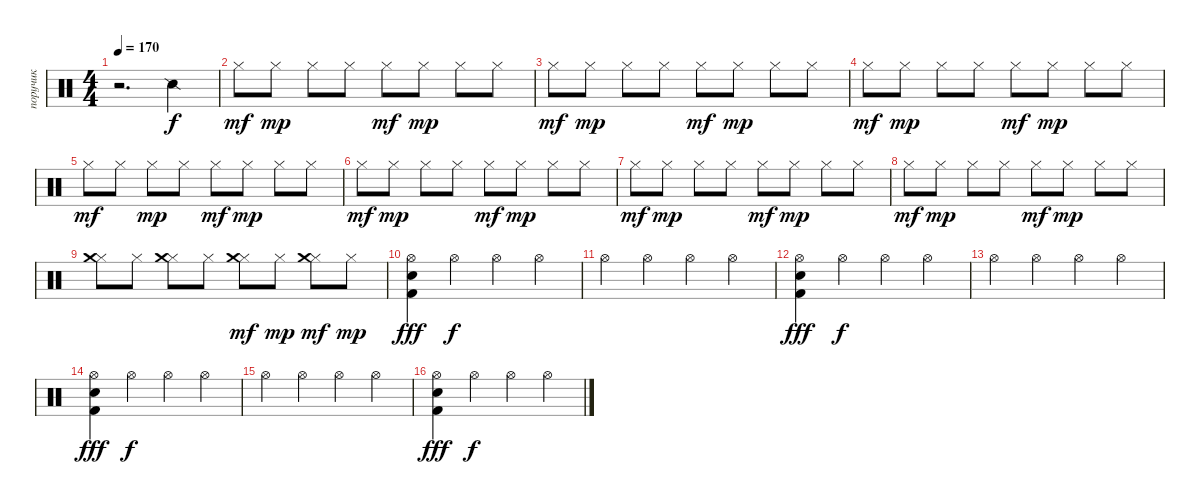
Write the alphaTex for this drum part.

\track ("поручик" "поручик") {instrument percussion}
\staff {score}
\articulation defaults
\ts (4 4)
\tempo 170
\clef neutral
\ks c
r.2{d dy f} "Snare (side stick) 2".4 |
"Hi-Hat (closed)".8{dy mf} "Hi-Hat (closed)".8{dy mp} "Hi-Hat (closed)".8 "Hi-Hat (closed)".8 "Hi-Hat (closed)".8{dy mf} "Hi-Hat (closed)".8{dy mp} "Hi-Hat (closed)".8 "Hi-Hat (closed)".8 |
"Hi-Hat (closed)".8{dy mf} "Hi-Hat (closed)".8{dy mp} "Hi-Hat (closed)".8 "Hi-Hat (closed)".8 "Hi-Hat (closed)".8{dy mf} "Hi-Hat (closed)".8{dy mp} "Hi-Hat (closed)".8 "Hi-Hat (closed)".8 |
"Hi-Hat (closed)".8{dy mf} "Hi-Hat (closed)".8{dy mp} "Hi-Hat (closed)".8 "Hi-Hat (closed)".8 "Hi-Hat (closed)".8{dy mf} "Hi-Hat (closed)".8{dy mp} "Hi-Hat (closed)".8 "Hi-Hat (closed)".8 |
"Hi-Hat (closed)".8{dy mf} "Hi-Hat (closed)".8 "Hi-Hat (closed)".8{dy mp} "Hi-Hat (closed)".8 "Hi-Hat (closed)".8{dy mf} "Hi-Hat (closed)".8{dy mp} "Hi-Hat (closed)".8 "Hi-Hat (closed)".8 |
"Hi-Hat (closed)".8{dy mf} "Hi-Hat (closed)".8{dy mp} "Hi-Hat (closed)".8 "Hi-Hat (closed)".8 "Hi-Hat (closed)".8{dy mf} "Hi-Hat (closed)".8{dy mp} "Hi-Hat (closed)".8 "Hi-Hat (closed)".8 |
"Hi-Hat (closed)".8{dy mf} "Hi-Hat (closed)".8{dy mp} "Hi-Hat (closed)".8 "Hi-Hat (closed)".8 "Hi-Hat (closed)".8{dy mf} "Hi-Hat (closed)".8{dy mp} "Hi-Hat (closed)".8 "Hi-Hat (closed)".8 |
"Hi-Hat (closed)".8{dy mf} "Hi-Hat (closed)".8{dy mp} "Hi-Hat (closed)".8 "Hi-Hat (closed)".8 "Hi-Hat (closed)".8{dy mf} "Hi-Hat (closed)".8{dy mp} "Hi-Hat (closed)".8 "Hi-Hat (closed)".8 |
("Hi-Hat (closed)" "Crash medium (hit)").8 "Hi-Hat (closed)".8 ("Hi-Hat (closed)" "Crash medium (hit)").8 "Hi-Hat (closed)".8 ("Hi-Hat (closed)" "Crash medium (hit)").8{dy mf} "Hi-Hat (closed)".8{dy mp} ("Hi-Hat (closed)" "Crash medium (hit)").8{dy mf} "Hi-Hat (closed)".8{dy mp} |
("Hi-Hat (open)" "Electric Snare (hit)" "Kick (hit) 2").4{dy fff} "Hi-Hat (open)".4{dy f} "Hi-Hat (open)".4 "Hi-Hat (open)".4 |
"Hi-Hat (open)".4 "Hi-Hat (open)".4 "Hi-Hat (open)".4 "Hi-Hat (open)".4 |
("Hi-Hat (open)" "Kick (hit) 2" "Electric Snare (hit)").4{dy fff} "Hi-Hat (open)".4{dy f} "Hi-Hat (open)".4 "Hi-Hat (open)".4 |
"Hi-Hat (open)".4 "Hi-Hat (open)".4 "Hi-Hat (open)".4 "Hi-Hat (open)".4 |
("Hi-Hat (open)" "Kick (hit) 2" "Electric Snare (hit)").4{dy fff} "Hi-Hat (open)".4{dy f} "Hi-Hat (open)".4 "Hi-Hat (open)".4 |
"Hi-Hat (open)".4 "Hi-Hat (open)".4 "Hi-Hat (open)".4 "Hi-Hat (open)".4 |
("Hi-Hat (open)" "Electric Snare (hit)" "Kick (hit) 2").4{dy fff} "Hi-Hat (open)".4{dy f} "Hi-Hat (open)".4 "Hi-Hat (open)".4
